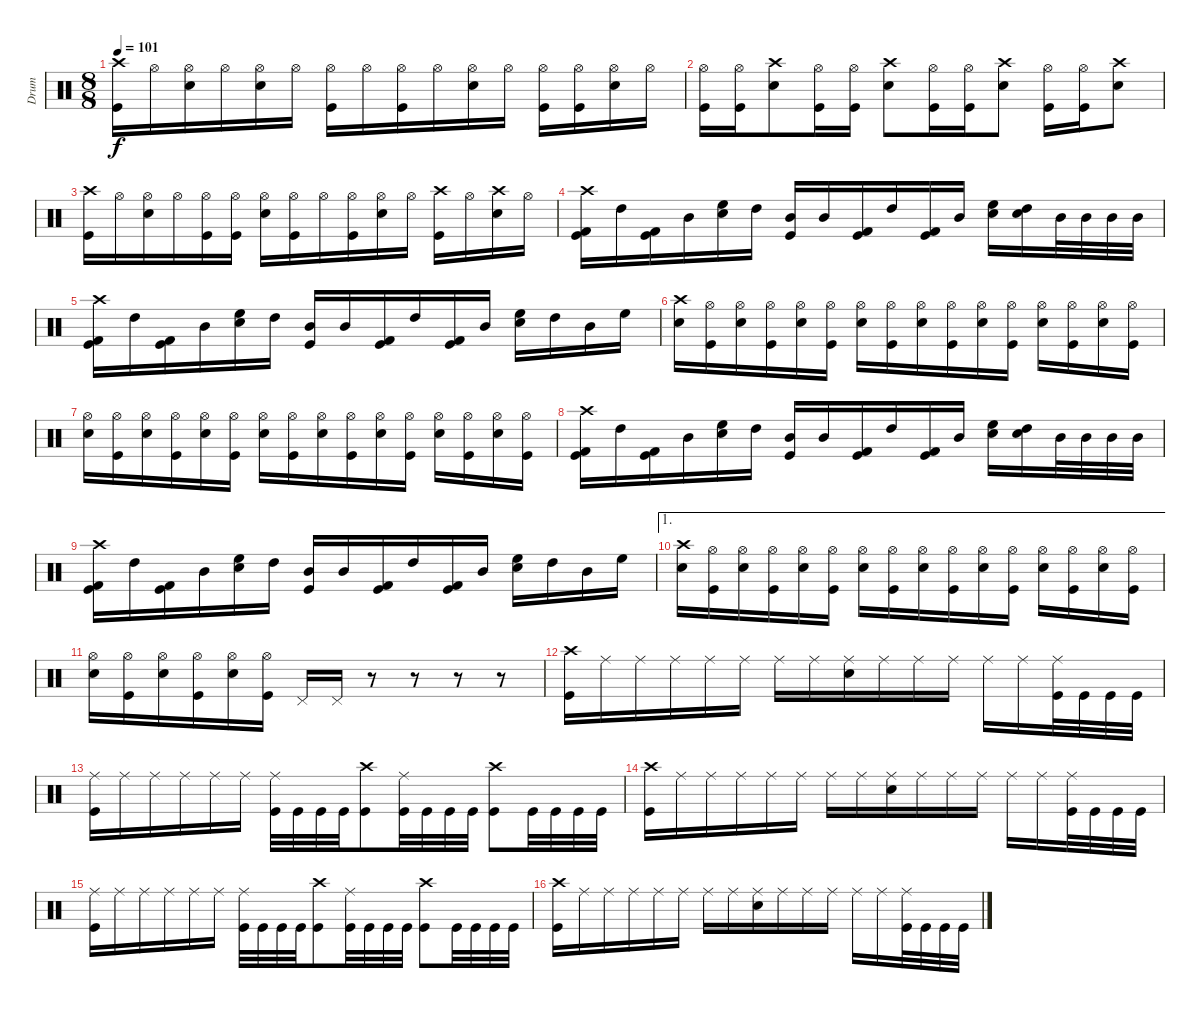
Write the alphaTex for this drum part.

\track ("Drum" "Drum") {instrument percussion}
\staff {score}
\articulation defaults
\ts (8 8)
\tempo 101
\clef neutral
\ks c
("Crash high (hit)" "Kick (hit)").16{dy f} "Hi-Hat (open)".16 ("Hi-Hat (open)" "Snare (hit) 2").16 "Hi-Hat (open)".16 ("Hi-Hat (open)" "Snare (hit) 2").16 "Hi-Hat (open)".16 ("Hi-Hat (open)" "Kick (hit)").16 "Hi-Hat (open)".16 ("Hi-Hat (open)" "Kick (hit)").16 "Hi-Hat (open)".16 ("Hi-Hat (open)" "Snare (hit) 2").16 "Hi-Hat (open)".16 ("Hi-Hat (open)" "Kick (hit)").16 ("Hi-Hat (open)" "Kick (hit)").16 ("Hi-Hat (open)" "Snare (hit) 2").16 "Hi-Hat (open)".16 |
("Hi-Hat (open)" "Kick (hit)").16 ("Hi-Hat (open)" "Kick (hit)").16 ("Crash high (hit)" "Snare (hit) 2").8 ("Hi-Hat (open)" "Kick (hit)").16 ("Hi-Hat (open)" "Kick (hit)").16 ("Crash high (hit)" "Snare (hit) 2").8 ("Hi-Hat (open)" "Kick (hit)").16 ("Hi-Hat (open)" "Kick (hit)").16 ("Crash high (hit)" "Snare (hit) 2").8 ("Hi-Hat (open)" "Kick (hit)").16 ("Hi-Hat (open)" "Kick (hit)").16 ("Crash high (hit)" "Snare (hit) 2").8 |
("Crash high (hit)" "Kick (hit)").16 "Hi-Hat (open)".16 ("Hi-Hat (open)" "Snare (hit) 2").16 "Hi-Hat (open)".16 ("Hi-Hat (open)" "Kick (hit)").16 ("Hi-Hat (open)" "Kick (hit)").16 ("Hi-Hat (open)" "Snare (hit) 2").16 ("Hi-Hat (open)" "Kick (hit)").16 "Hi-Hat (open)".16 ("Hi-Hat (open)" "Kick (hit)").16 ("Hi-Hat (open)" "Snare (hit) 2").16 "Hi-Hat (open)".16 ("Crash high (hit)" "Kick (hit)").16 "Hi-Hat (open)".16 ("Crash high (hit)" "Snare (hit) 2").16 "Hi-Hat (open)".16 |
("Crash high (hit)" "Kick (hit)" "Kick (hit) 2").16 "High Tom (hit)".16 ("Kick (hit)" "Kick (hit) 2").16 "Mid Tom (hit)".16 ("Electric Snare (hit)" "High Floor Tom (hit)").16 "High Tom (hit)".16 ("Kick (hit)" "Mid Tom (hit)").16 "Mid Tom (hit)".16 ("Kick (hit)" "Kick (hit) 2").16 "High Tom (hit)".16 ("Kick (hit)" "Kick (hit) 2").16 "Mid Tom (hit)".16 ("Electric Snare (hit)" "High Floor Tom (hit)").16 ("Electric Snare (hit)" "High Tom (hit)").16 "Mid Tom (hit)".32 "Mid Tom (hit)".32 "Mid Tom (hit)".32 "Mid Tom (hit)".32 |
("Crash high (hit)" "Kick (hit)" "Kick (hit) 2").16 "High Tom (hit)".16 ("Kick (hit)" "Kick (hit) 2").16 "Mid Tom (hit)".16 ("Electric Snare (hit)" "High Floor Tom (hit)").16 "High Tom (hit)".16 ("Kick (hit)" "Mid Tom (hit)").16 "Mid Tom (hit)".16 ("Kick (hit)" "Kick (hit) 2").16 "High Tom (hit)".16 ("Kick (hit)" "Kick (hit) 2").16 "Mid Tom (hit)".16 ("Electric Snare (hit)" "High Floor Tom (hit)").16 "High Tom (hit)".16 "Mid Tom (hit)".16 "High Floor Tom (hit)".16 |
("Crash high (hit)" "Snare (hit) 2").16 ("Hi-Hat (open)" "Kick (hit)").16 ("Hi-Hat (open)" "Snare (hit) 2").16 ("Hi-Hat (open)" "Kick (hit)").16 ("Hi-Hat (open)" "Snare (hit) 2").16 ("Hi-Hat (open)" "Kick (hit)").16 ("Hi-Hat (open)" "Snare (hit) 2").16 ("Hi-Hat (open)" "Kick (hit)").16 ("Hi-Hat (open)" "Snare (hit) 2").16 ("Hi-Hat (open)" "Kick (hit)").16 ("Hi-Hat (open)" "Snare (hit) 2").16 ("Hi-Hat (open)" "Kick (hit)").16 ("Hi-Hat (open)" "Snare (hit) 2").16 ("Hi-Hat (open)" "Kick (hit)").16 ("Hi-Hat (open)" "Snare (hit) 2").16 ("Hi-Hat (open)" "Kick (hit)").16 |
("Hi-Hat (open)" "Snare (hit) 2").16 ("Hi-Hat (open)" "Kick (hit)").16 ("Hi-Hat (open)" "Snare (hit) 2").16 ("Hi-Hat (open)" "Kick (hit)").16 ("Hi-Hat (open)" "Snare (hit) 2").16 ("Hi-Hat (open)" "Kick (hit)").16 ("Hi-Hat (open)" "Snare (hit) 2").16 ("Hi-Hat (open)" "Kick (hit)").16 ("Hi-Hat (open)" "Snare (hit) 2").16 ("Hi-Hat (open)" "Kick (hit)").16 ("Hi-Hat (open)" "Snare (hit) 2").16 ("Hi-Hat (open)" "Kick (hit)").16 ("Hi-Hat (open)" "Snare (hit) 2").16 ("Hi-Hat (open)" "Kick (hit)").16 ("Hi-Hat (open)" "Snare (hit) 2").16 ("Hi-Hat (open)" "Kick (hit)").16 |
("Crash high (hit)" "Kick (hit)" "Kick (hit) 2").16 "High Tom (hit)".16 ("Kick (hit)" "Kick (hit) 2").16 "Mid Tom (hit)".16 ("Electric Snare (hit)" "High Floor Tom (hit)").16 "High Tom (hit)".16 ("Kick (hit)" "Mid Tom (hit)").16 "Mid Tom (hit)".16 ("Kick (hit)" "Kick (hit) 2").16 "High Tom (hit)".16 ("Kick (hit)" "Kick (hit) 2").16 "Mid Tom (hit)".16 ("Electric Snare (hit)" "High Floor Tom (hit)").16 ("Electric Snare (hit)" "High Tom (hit)").16 "Mid Tom (hit)".32 "Mid Tom (hit)".32 "Mid Tom (hit)".32 "Mid Tom (hit)".32 |
("Crash high (hit)" "Kick (hit)" "Kick (hit) 2").16 "High Tom (hit)".16 ("Kick (hit)" "Kick (hit) 2").16 "Mid Tom (hit)".16 ("Electric Snare (hit)" "High Floor Tom (hit)").16 "High Tom (hit)".16 ("Kick (hit)" "Mid Tom (hit)").16 "Mid Tom (hit)".16 ("Kick (hit)" "Kick (hit) 2").16 "High Tom (hit)".16 ("Kick (hit)" "Kick (hit) 2").16 "Mid Tom (hit)".16 ("Electric Snare (hit)" "High Floor Tom (hit)").16 "High Tom (hit)".16 "Mid Tom (hit)".16 "High Floor Tom (hit)".16 |
\ae 1
("Crash high (hit)" "Snare (hit) 2").16 ("Hi-Hat (open)" "Kick (hit)").16 ("Hi-Hat (open)" "Snare (hit) 2").16 ("Hi-Hat (open)" "Kick (hit)").16 ("Hi-Hat (open)" "Snare (hit) 2").16 ("Hi-Hat (open)" "Kick (hit)").16 ("Hi-Hat (open)" "Snare (hit) 2").16 ("Hi-Hat (open)" "Kick (hit)").16 ("Hi-Hat (open)" "Snare (hit) 2").16 ("Hi-Hat (open)" "Kick (hit)").16 ("Hi-Hat (open)" "Snare (hit) 2").16 ("Hi-Hat (open)" "Kick (hit)").16 ("Hi-Hat (open)" "Snare (hit) 2").16 ("Hi-Hat (open)" "Kick (hit)").16 ("Hi-Hat (open)" "Snare (hit) 2").16 ("Hi-Hat (open)" "Kick (hit)").16 |
("Hi-Hat (open)" "Snare (hit) 2").16 ("Hi-Hat (open)" "Kick (hit)").16 ("Hi-Hat (open)" "Snare (hit) 2").16 ("Hi-Hat (open)" "Kick (hit)").16 ("Hi-Hat (open)" "Snare (hit) 2").16 ("Hi-Hat (open)" "Kick (hit)").16 "Pedal Hi-Hat (hit)".16 "Pedal Hi-Hat (hit)".16 r.8 r.8 r.8 r.8 |
("Crash high (hit)" "Kick (hit)").16 "Ride (middle)".16 "Ride (middle)".16 "Ride (middle)".16 "Ride (middle)".16 "Ride (middle)".16 "Ride (middle)".16 "Ride (middle)".16 ("Ride (middle)" "Snare (hit) 2").16 "Ride (middle)".16 "Ride (middle)".16 "Ride (middle)".16 "Ride (middle)".16 "Ride (middle)".16 ("Ride (middle)" "Kick (hit)").32 "Kick (hit)".32 "Kick (hit)".32 "Kick (hit)".32 |
("Ride (middle)" "Kick (hit)").16 "Ride (middle)".16 "Ride (middle)".16 "Ride (middle)".16 "Ride (middle)".16 "Ride (middle)".16 ("Ride (middle)" "Kick (hit)").32 "Kick (hit)".32 "Kick (hit)".32 "Kick (hit)".32 ("Crash high (hit)" "Kick (hit)").8 ("Ride (middle)" "Kick (hit)").32 "Kick (hit)".32 "Kick (hit)".32 "Kick (hit)".32 ("Crash high (hit)" "Kick (hit)").8 "Kick (hit)".32 "Kick (hit)".32 "Kick (hit)".32 "Kick (hit)".32 |
("Crash high (hit)" "Kick (hit)").16 "Ride (middle)".16 "Ride (middle)".16 "Ride (middle)".16 "Ride (middle)".16 "Ride (middle)".16 "Ride (middle)".16 "Ride (middle)".16 ("Ride (middle)" "Snare (hit) 2").16 "Ride (middle)".16 "Ride (middle)".16 "Ride (middle)".16 "Ride (middle)".16 "Ride (middle)".16 ("Ride (middle)" "Kick (hit)").32 "Kick (hit)".32 "Kick (hit)".32 "Kick (hit)".32 |
("Ride (middle)" "Kick (hit)").16 "Ride (middle)".16 "Ride (middle)".16 "Ride (middle)".16 "Ride (middle)".16 "Ride (middle)".16 ("Ride (middle)" "Kick (hit)").32 "Kick (hit)".32 "Kick (hit)".32 "Kick (hit)".32 ("Crash high (hit)" "Kick (hit)").8 ("Ride (middle)" "Kick (hit)").32 "Kick (hit)".32 "Kick (hit)".32 "Kick (hit)".32 ("Crash high (hit)" "Kick (hit)").8 "Kick (hit)".32 "Kick (hit)".32 "Kick (hit)".32 "Kick (hit)".32 |
("Crash high (hit)" "Kick (hit)").16 "Ride (middle)".16 "Ride (middle)".16 "Ride (middle)".16 "Ride (middle)".16 "Ride (middle)".16 "Ride (middle)".16 "Ride (middle)".16 ("Ride (middle)" "Snare (hit) 2").16 "Ride (middle)".16 "Ride (middle)".16 "Ride (middle)".16 "Ride (middle)".16 "Ride (middle)".16 ("Ride (middle)" "Kick (hit)").32 "Kick (hit)".32 "Kick (hit)".32 "Kick (hit)".32
